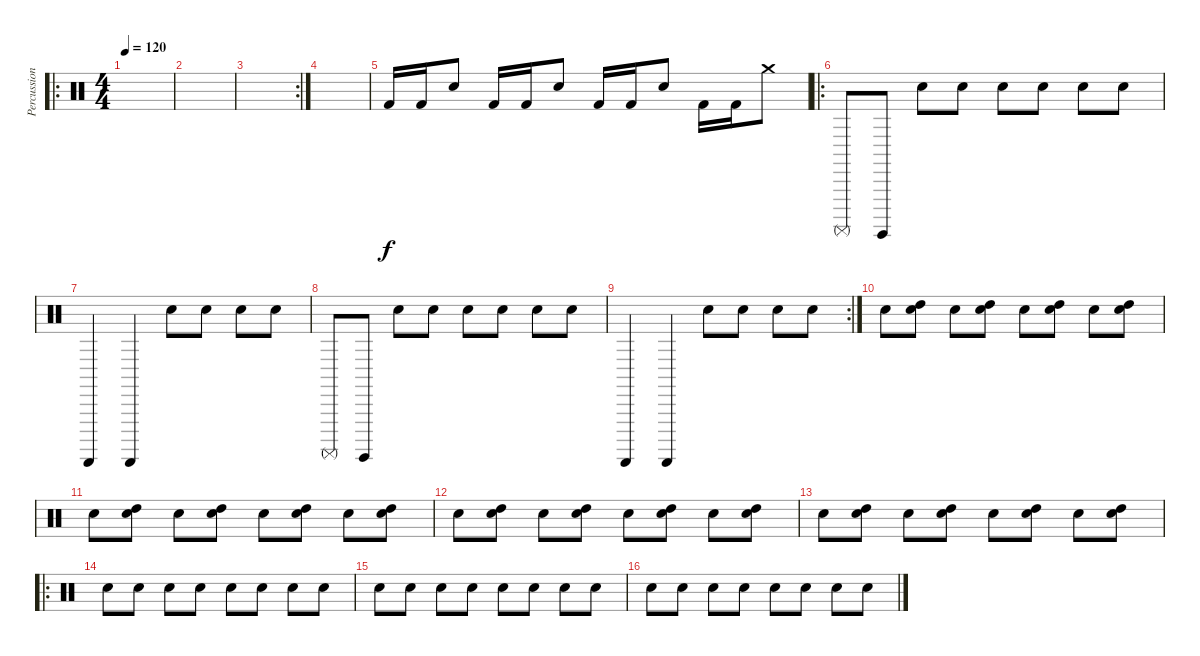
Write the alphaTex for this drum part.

\track ("Percussion" "Percussion") {instrument percussion}
\staff {score}
\articulation defaults
\ro
\ts (4 4)
\tempo 120
\clef neutral
\ks c
|
|
\rc 2
|
|
"Kick (hit) 2".16 "Kick (hit) 2".16 "Snare (hit) 2".8 "Kick (hit) 2".16 "Kick (hit) 2".16 "Snare (hit) 2".8 "Kick (hit) 2".16 "Kick (hit) 2".16 "Snare (hit) 2".8 "Kick (hit) 2".16 "Kick (hit) 2".16 "Crash medium (hit)".8 |
\ro "Surdo (mute)".8 "Surdo (hit)".8 "Hand Clap (hit)".8 "Snare (hit) 2".8 "Hand Clap (hit)".8 "Snare (hit) 2".8 "Hand Clap (hit)".8 "Snare (hit) 2".8
|
"Guiro (scrap-return)".4 "Guiro (scrap-return)".4 "Hand Clap (hit)".8 "Snare (hit) 2".8 "Hand Clap (hit)".8 "Snare (hit) 2".8 |
"Surdo (mute)".8 "Surdo (hit)".8 "Hand Clap (hit)".8 "Snare (hit) 2".8 "Hand Clap (hit)".8 "Snare (hit) 2".8 "Hand Clap (hit)".8 "Snare (hit) 2".8 |
\rc 2 "Guiro (scrap-return)".4 "Guiro (scrap-return)".4 "Hand Clap (hit)".8 "Snare (hit) 2".8 "Hand Clap (hit)".8 "Snare (hit) 2".8
|
"Hand Clap (hit)".8 ("Snare (hit) 2" "High Tom (hit)").8 "Hand Clap (hit)".8 ("Snare (hit) 2" "High Tom (hit)").8 "Hand Clap (hit)".8 ("Snare (hit) 2" "High Tom (hit)").8 "Hand Clap (hit)".8 ("Snare (hit) 2" "High Tom (hit)").8 |
"Hand Clap (hit)".8 ("Snare (hit) 2" "High Tom (hit)").8 "Hand Clap (hit)".8 ("Snare (hit) 2" "High Tom (hit)").8 "Hand Clap (hit)".8 ("Snare (hit) 2" "High Tom (hit)").8 "Hand Clap (hit)".8 ("Snare (hit) 2" "High Tom (hit)").8 |
"Hand Clap (hit)".8 ("Snare (hit) 2" "High Tom (hit)").8 "Hand Clap (hit)".8 ("Snare (hit) 2" "High Tom (hit)").8 "Hand Clap (hit)".8 ("Snare (hit) 2" "High Tom (hit)").8 "Hand Clap (hit)".8 ("Snare (hit) 2" "High Tom (hit)").8 |
"Hand Clap (hit)".8 ("Snare (hit) 2" "High Tom (hit)").8 "Hand Clap (hit)".8 ("Snare (hit) 2" "High Tom (hit)").8 "Hand Clap (hit)".8 ("Snare (hit) 2" "High Tom (hit)").8 "Hand Clap (hit)".8 ("Snare (hit) 2" "High Tom (hit)").8 |
\ro "Hand Clap (hit)".8 "Snare (hit) 2".8 "Hand Clap (hit)".8 "Snare (hit) 2".8 "Hand Clap (hit)".8 "Snare (hit) 2".8 "Hand Clap (hit)".8 "Snare (hit) 2".8
|
"Hand Clap (hit)".8 "Snare (hit) 2".8 "Hand Clap (hit)".8 "Snare (hit) 2".8 "Hand Clap (hit)".8 "Snare (hit) 2".8 "Hand Clap (hit)".8 "Snare (hit) 2".8 |
"Hand Clap (hit)".8 "Snare (hit) 2".8 "Hand Clap (hit)".8 "Snare (hit) 2".8 "Hand Clap (hit)".8 "Snare (hit) 2".8 "Hand Clap (hit)".8 "Snare (hit) 2".8
